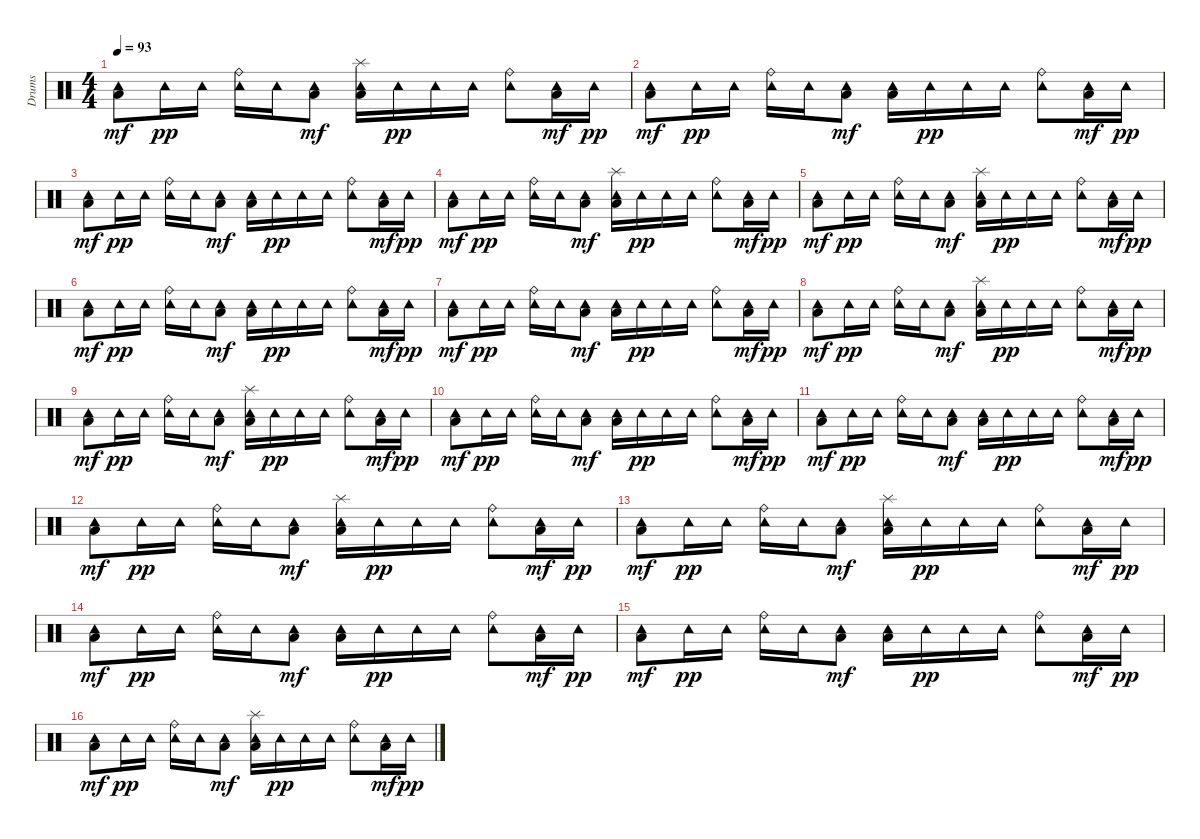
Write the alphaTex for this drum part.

\track ("Drums" "Drums") {instrument percussion}
\staff {score}
\articulation defaults
\ts (4 4)
\tempo 93
\clef neutral
\ks c
("Tambourine (hit)" "Low Floor Tom (hit)").8{dy mf} "Tambourine (hit)".16{dy pp} "Tambourine (hit)".16 ("Tambourine (hit)" "Ride (bell)").16 "Tambourine (hit)".16 ("Tambourine (hit)" "Low Floor Tom (hit)").8{dy mf} ("Tambourine (hit)" "Splash (hit)" "Low Floor Tom (hit)").16 "Tambourine (hit)".16{dy pp} "Tambourine (hit)".16 "Tambourine (hit)".16 ("Tambourine (hit)" "Ride (bell)").8 ("Tambourine (hit)" "Low Floor Tom (hit)").16{dy mf} "Tambourine (hit)".16{dy pp} |
("Tambourine (hit)" "Low Floor Tom (hit)").8{dy mf} "Tambourine (hit)".16{dy pp} "Tambourine (hit)".16 ("Tambourine (hit)" "Ride (bell)").16 "Tambourine (hit)".16 ("Tambourine (hit)" "Low Floor Tom (hit)").8{dy mf} ("Tambourine (hit)" "Low Floor Tom (hit)").16 "Tambourine (hit)".16{dy pp} "Tambourine (hit)".16 "Tambourine (hit)".16 ("Tambourine (hit)" "Ride (bell)").8 ("Tambourine (hit)" "Low Floor Tom (hit)").16{dy mf} "Tambourine (hit)".16{dy pp} |
("Tambourine (hit)" "Low Floor Tom (hit)").8{dy mf} "Tambourine (hit)".16{dy pp} "Tambourine (hit)".16 ("Tambourine (hit)" "Ride (bell)").16 "Tambourine (hit)".16 ("Tambourine (hit)" "Low Floor Tom (hit)").8{dy mf} ("Tambourine (hit)" "Low Floor Tom (hit)").16 "Tambourine (hit)".16{dy pp} "Tambourine (hit)".16 "Tambourine (hit)".16 ("Tambourine (hit)" "Ride (bell)").8 ("Tambourine (hit)" "Low Floor Tom (hit)").16{dy mf} "Tambourine (hit)".16{dy pp} |
("Tambourine (hit)" "Low Floor Tom (hit)").8{dy mf} "Tambourine (hit)".16{dy pp} "Tambourine (hit)".16 ("Tambourine (hit)" "Ride (bell)").16 "Tambourine (hit)".16 ("Tambourine (hit)" "Low Floor Tom (hit)").8{dy mf} ("Tambourine (hit)" "Splash (hit)" "Low Floor Tom (hit)").16 "Tambourine (hit)".16{dy pp} "Tambourine (hit)".16 "Tambourine (hit)".16 ("Tambourine (hit)" "Ride (bell)").8 ("Tambourine (hit)" "Low Floor Tom (hit)").16{dy mf} "Tambourine (hit)".16{dy pp} |
("Tambourine (hit)" "Low Floor Tom (hit)").8{dy mf} "Tambourine (hit)".16{dy pp} "Tambourine (hit)".16 ("Tambourine (hit)" "Ride (bell)").16 "Tambourine (hit)".16 ("Tambourine (hit)" "Low Floor Tom (hit)").8{dy mf} ("Tambourine (hit)" "Splash (hit)" "Low Floor Tom (hit)").16 "Tambourine (hit)".16{dy pp} "Tambourine (hit)".16 "Tambourine (hit)".16 ("Tambourine (hit)" "Ride (bell)").8 ("Tambourine (hit)" "Low Floor Tom (hit)").16{dy mf} "Tambourine (hit)".16{dy pp} |
("Tambourine (hit)" "Low Floor Tom (hit)").8{dy mf} "Tambourine (hit)".16{dy pp} "Tambourine (hit)".16 ("Tambourine (hit)" "Ride (bell)").16 "Tambourine (hit)".16 ("Tambourine (hit)" "Low Floor Tom (hit)").8{dy mf} ("Tambourine (hit)" "Low Floor Tom (hit)").16 "Tambourine (hit)".16{dy pp} "Tambourine (hit)".16 "Tambourine (hit)".16 ("Tambourine (hit)" "Ride (bell)").8 ("Tambourine (hit)" "Low Floor Tom (hit)").16{dy mf} "Tambourine (hit)".16{dy pp} |
("Tambourine (hit)" "Low Floor Tom (hit)").8{dy mf} "Tambourine (hit)".16{dy pp} "Tambourine (hit)".16 ("Tambourine (hit)" "Ride (bell)").16 "Tambourine (hit)".16 ("Tambourine (hit)" "Low Floor Tom (hit)").8{dy mf} ("Tambourine (hit)" "Low Floor Tom (hit)").16 "Tambourine (hit)".16{dy pp} "Tambourine (hit)".16 "Tambourine (hit)".16 ("Tambourine (hit)" "Ride (bell)").8 ("Tambourine (hit)" "Low Floor Tom (hit)").16{dy mf} "Tambourine (hit)".16{dy pp} |
("Tambourine (hit)" "Low Floor Tom (hit)").8{dy mf} "Tambourine (hit)".16{dy pp} "Tambourine (hit)".16 ("Tambourine (hit)" "Ride (bell)").16 "Tambourine (hit)".16 ("Tambourine (hit)" "Low Floor Tom (hit)").8{dy mf} ("Tambourine (hit)" "Splash (hit)" "Low Floor Tom (hit)").16 "Tambourine (hit)".16{dy pp} "Tambourine (hit)".16 "Tambourine (hit)".16 ("Tambourine (hit)" "Ride (bell)").8 ("Tambourine (hit)" "Low Floor Tom (hit)").16{dy mf} "Tambourine (hit)".16{dy pp} |
("Tambourine (hit)" "Low Floor Tom (hit)").8{dy mf} "Tambourine (hit)".16{dy pp} "Tambourine (hit)".16 ("Tambourine (hit)" "Ride (bell)").16 "Tambourine (hit)".16 ("Tambourine (hit)" "Low Floor Tom (hit)").8{dy mf} ("Tambourine (hit)" "Splash (hit)" "Low Floor Tom (hit)").16 "Tambourine (hit)".16{dy pp} "Tambourine (hit)".16 "Tambourine (hit)".16 ("Tambourine (hit)" "Ride (bell)").8 ("Tambourine (hit)" "Low Floor Tom (hit)").16{dy mf} "Tambourine (hit)".16{dy pp} |
("Tambourine (hit)" "Low Floor Tom (hit)").8{dy mf} "Tambourine (hit)".16{dy pp} "Tambourine (hit)".16 ("Tambourine (hit)" "Ride (bell)").16 "Tambourine (hit)".16 ("Tambourine (hit)" "Low Floor Tom (hit)").8{dy mf} ("Tambourine (hit)" "Low Floor Tom (hit)").16 "Tambourine (hit)".16{dy pp} "Tambourine (hit)".16 "Tambourine (hit)".16 ("Tambourine (hit)" "Ride (bell)").8 ("Tambourine (hit)" "Low Floor Tom (hit)").16{dy mf} "Tambourine (hit)".16{dy pp} |
("Tambourine (hit)" "Low Floor Tom (hit)").8{dy mf} "Tambourine (hit)".16{dy pp} "Tambourine (hit)".16 ("Tambourine (hit)" "Ride (bell)").16 "Tambourine (hit)".16 ("Tambourine (hit)" "Low Floor Tom (hit)").8{dy mf} ("Tambourine (hit)" "Low Floor Tom (hit)").16 "Tambourine (hit)".16{dy pp} "Tambourine (hit)".16 "Tambourine (hit)".16 ("Tambourine (hit)" "Ride (bell)").8 ("Tambourine (hit)" "Low Floor Tom (hit)").16{dy mf} "Tambourine (hit)".16{dy pp} |
("Tambourine (hit)" "Low Floor Tom (hit)").8{dy mf} "Tambourine (hit)".16{dy pp} "Tambourine (hit)".16 ("Tambourine (hit)" "Ride (bell)").16 "Tambourine (hit)".16 ("Tambourine (hit)" "Low Floor Tom (hit)").8{dy mf} ("Tambourine (hit)" "Splash (hit)" "Low Floor Tom (hit)").16 "Tambourine (hit)".16{dy pp} "Tambourine (hit)".16 "Tambourine (hit)".16 ("Tambourine (hit)" "Ride (bell)").8 ("Tambourine (hit)" "Low Floor Tom (hit)").16{dy mf} "Tambourine (hit)".16{dy pp} |
("Tambourine (hit)" "Low Floor Tom (hit)").8{dy mf} "Tambourine (hit)".16{dy pp} "Tambourine (hit)".16 ("Tambourine (hit)" "Ride (bell)").16 "Tambourine (hit)".16 ("Tambourine (hit)" "Low Floor Tom (hit)").8{dy mf} ("Tambourine (hit)" "Splash (hit)" "Low Floor Tom (hit)").16 "Tambourine (hit)".16{dy pp} "Tambourine (hit)".16 "Tambourine (hit)".16 ("Tambourine (hit)" "Ride (bell)").8 ("Tambourine (hit)" "Low Floor Tom (hit)").16{dy mf} "Tambourine (hit)".16{dy pp} |
("Tambourine (hit)" "Low Floor Tom (hit)").8{dy mf} "Tambourine (hit)".16{dy pp} "Tambourine (hit)".16 ("Tambourine (hit)" "Ride (bell)").16 "Tambourine (hit)".16 ("Tambourine (hit)" "Low Floor Tom (hit)").8{dy mf} ("Tambourine (hit)" "Low Floor Tom (hit)").16 "Tambourine (hit)".16{dy pp} "Tambourine (hit)".16 "Tambourine (hit)".16 ("Tambourine (hit)" "Ride (bell)").8 ("Tambourine (hit)" "Low Floor Tom (hit)").16{dy mf} "Tambourine (hit)".16{dy pp} |
("Tambourine (hit)" "Low Floor Tom (hit)").8{dy mf} "Tambourine (hit)".16{dy pp} "Tambourine (hit)".16 ("Tambourine (hit)" "Ride (bell)").16 "Tambourine (hit)".16 ("Tambourine (hit)" "Low Floor Tom (hit)").8{dy mf} ("Tambourine (hit)" "Low Floor Tom (hit)").16 "Tambourine (hit)".16{dy pp} "Tambourine (hit)".16 "Tambourine (hit)".16 ("Tambourine (hit)" "Ride (bell)").8 ("Tambourine (hit)" "Low Floor Tom (hit)").16{dy mf} "Tambourine (hit)".16{dy pp} |
("Tambourine (hit)" "Low Floor Tom (hit)").8{dy mf} "Tambourine (hit)".16{dy pp} "Tambourine (hit)".16 ("Tambourine (hit)" "Ride (bell)").16 "Tambourine (hit)".16 ("Tambourine (hit)" "Low Floor Tom (hit)").8{dy mf} ("Tambourine (hit)" "Splash (hit)" "Low Floor Tom (hit)").16 "Tambourine (hit)".16{dy pp} "Tambourine (hit)".16 "Tambourine (hit)".16 ("Tambourine (hit)" "Ride (bell)").8 ("Tambourine (hit)" "Low Floor Tom (hit)").16{dy mf} "Tambourine (hit)".16{dy pp}
